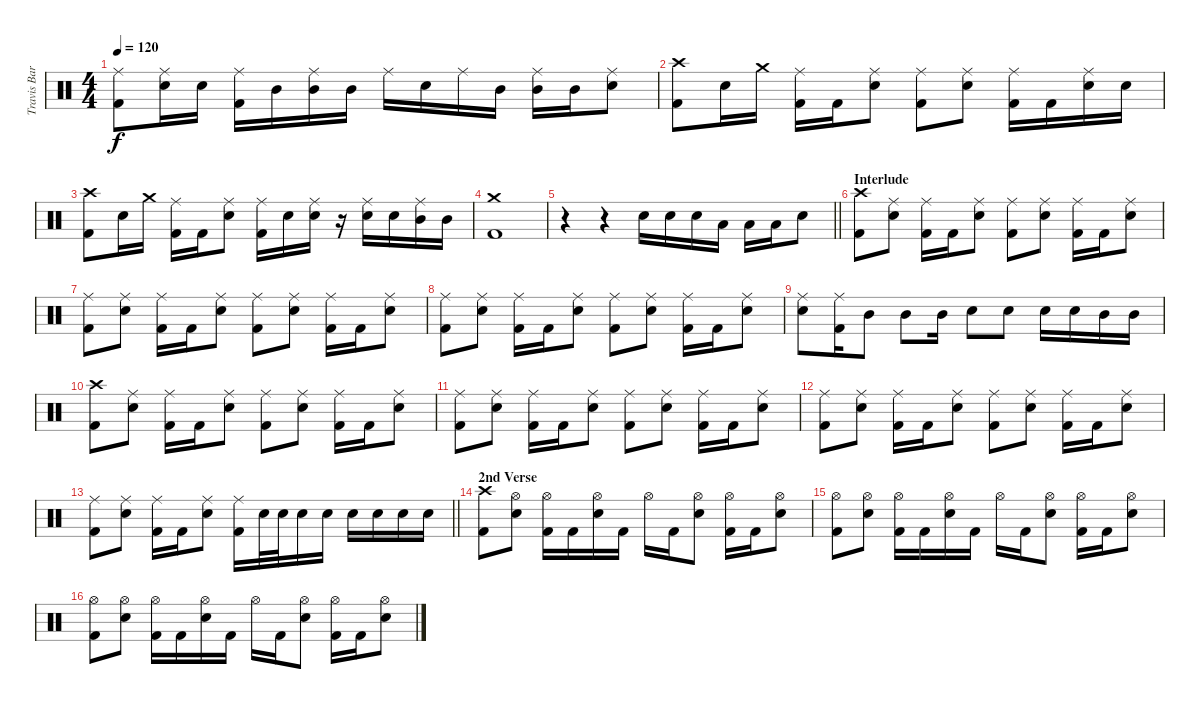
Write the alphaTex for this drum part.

\track ("Travis Barker - Drums" "Travis Bar") {instrument percussion}
\staff {score}
\articulation defaults
\ts (4 4)
\tempo 120
\clef neutral
\ks c
("Ride (middle)" "Kick (hit) 2").8{dy f} ("Ride (middle)" "Electric Snare (hit)").16 "Electric Snare (hit)".16 ("Ride (middle)" "Kick (hit) 2").16 "Mid Tom (hit)".16 ("Ride (middle)" "Mid Tom (hit)").16 "Mid Tom (hit)".16 "Ride (middle)".16 "Electric Snare (hit)".16 "Ride (middle)".16 "Mid Tom (hit)".16 ("Ride (middle)" "Mid Tom (hit)").16 "Mid Tom (hit)".16 ("Ride (middle)" "Electric Snare (hit)").8 |
("Crash high (hit)" "Kick (hit) 2").8 "Electric Snare (hit)".16 "Crash medium (hit)".16 ("Ride (middle)" "Kick (hit) 2").16 "Kick (hit) 2".16 ("Ride (middle)" "Electric Snare (hit)").8 ("Ride (middle)" "Kick (hit) 2").8 ("Ride (middle)" "Electric Snare (hit)").8 ("Ride (middle)" "Kick (hit) 2").16 "Kick (hit) 2".16 ("Ride (middle)" "Electric Snare (hit)").16 "Electric Snare (hit)".16 |
("Crash high (hit)" "Kick (hit) 2").8 "Electric Snare (hit)".16 "Crash medium (hit)".16 ("Ride (middle)" "Kick (hit) 2").16 "Kick (hit) 2".16 ("Ride (middle)" "Electric Snare (hit)").8 ("Ride (middle)" "Kick (hit) 2").16 "Electric Snare (hit)".16 ("Ride (middle)" "Electric Snare (hit)").16 r.16 ("Ride (middle)" "Electric Snare (hit)").16 "Electric Snare (hit)".16 ("Ride (middle)" "Mid Tom (hit)").16 "Mid Tom (hit)".16 |
("Crash medium (hit)" "Kick (hit) 2").1 |
\barLineRight lightlight
r.4 r.4 "Electric Snare (hit)".16 "Electric Snare (hit)".16 "Electric Snare (hit)".16 "Low Tom (hit)".16 "Low Tom (hit)".16 "Low Tom (hit)".16 "Electric Snare (hit)".8 |
\section ("" "Interlude")
("Crash high (hit)" "Kick (hit) 2").8 ("Ride (middle)" "Electric Snare (hit)").8 ("Ride (middle)" "Kick (hit) 2").16 "Kick (hit) 2".16 ("Ride (middle)" "Electric Snare (hit)").8 ("Ride (middle)" "Kick (hit) 2").8 ("Ride (middle)" "Electric Snare (hit)").8 ("Ride (middle)" "Kick (hit) 2").16 "Kick (hit) 2".16 ("Ride (middle)" "Electric Snare (hit)").8 |
("Ride (middle)" "Kick (hit) 2").8 ("Ride (middle)" "Electric Snare (hit)").8 ("Ride (middle)" "Kick (hit) 2").16 "Kick (hit) 2".16 ("Ride (middle)" "Electric Snare (hit)").8 ("Ride (middle)" "Kick (hit) 2").8 ("Ride (middle)" "Electric Snare (hit)").8 ("Ride (middle)" "Kick (hit) 2").16 "Kick (hit) 2".16 ("Ride (middle)" "Electric Snare (hit)").8 |
("Ride (middle)" "Kick (hit) 2").8 ("Ride (middle)" "Electric Snare (hit)").8 ("Ride (middle)" "Kick (hit) 2").16 "Kick (hit) 2".16 ("Ride (middle)" "Electric Snare (hit)").8 ("Ride (middle)" "Kick (hit) 2").8 ("Ride (middle)" "Electric Snare (hit)").8 ("Ride (middle)" "Kick (hit) 2").16 "Kick (hit) 2".16 ("Ride (middle)" "Electric Snare (hit)").8 |
("Ride (middle)" "Electric Snare (hit)").8 ("Ride (middle)" "Kick (hit) 2").16 "Mid Tom (hit)".8 "Mid Tom (hit)".8 "Mid Tom (hit)".16 "Electric Snare (hit)".8 "Electric Snare (hit)".8 "Electric Snare (hit)".16 "Electric Snare (hit)".16 "Mid Tom (hit)".16 "Mid Tom (hit)".16 |
("Crash high (hit)" "Kick (hit) 2").8 ("Ride (middle)" "Electric Snare (hit)").8 ("Ride (middle)" "Kick (hit) 2").16 "Kick (hit) 2".16 ("Ride (middle)" "Electric Snare (hit)").8 ("Ride (middle)" "Kick (hit) 2").8 ("Ride (middle)" "Electric Snare (hit)").8 ("Ride (middle)" "Kick (hit) 2").16 "Kick (hit) 2".16 ("Ride (middle)" "Electric Snare (hit)").8 |
("Ride (middle)" "Kick (hit) 2").8 ("Ride (middle)" "Electric Snare (hit)").8 ("Ride (middle)" "Kick (hit) 2").16 "Kick (hit) 2".16 ("Ride (middle)" "Electric Snare (hit)").8 ("Ride (middle)" "Kick (hit) 2").8 ("Ride (middle)" "Electric Snare (hit)").8 ("Ride (middle)" "Kick (hit) 2").16 "Kick (hit) 2".16 ("Ride (middle)" "Electric Snare (hit)").8 |
("Ride (middle)" "Kick (hit) 2").8 ("Ride (middle)" "Electric Snare (hit)").8 ("Ride (middle)" "Kick (hit) 2").16 "Kick (hit) 2".16 ("Ride (middle)" "Electric Snare (hit)").8 ("Ride (middle)" "Kick (hit) 2").8 ("Ride (middle)" "Electric Snare (hit)").8 ("Ride (middle)" "Kick (hit) 2").16 "Kick (hit) 2".16 ("Ride (middle)" "Electric Snare (hit)").8 |
\barLineRight lightlight
("Ride (middle)" "Kick (hit) 2").8 ("Ride (middle)" "Electric Snare (hit)").8 ("Ride (middle)" "Kick (hit) 2").16 "Kick (hit) 2".16 ("Ride (middle)" "Electric Snare (hit)").8 ("Ride (middle)" "Kick (hit) 2").16 "Electric Snare (hit)".32 "Electric Snare (hit)".32 "Electric Snare (hit)".16 "Electric Snare (hit)".16 "Electric Snare (hit)".16 "Electric Snare (hit)".16 "Electric Snare (hit)".16 "Electric Snare (hit)".16 |
\section ("" "2nd Verse")
("Crash high (hit)" "Kick (hit) 2").8 ("Hi-Hat (open)" "Electric Snare (hit)").8 ("Hi-Hat (open)" "Kick (hit) 2").16 "Kick (hit) 2".16 ("Hi-Hat (open)" "Electric Snare (hit)").16 "Kick (hit) 2".16 "Hi-Hat (open)".16 "Kick (hit) 2".16 ("Hi-Hat (open)" "Electric Snare (hit)").8 ("Hi-Hat (open)" "Kick (hit) 2").16 "Kick (hit) 2".16 ("Hi-Hat (open)" "Electric Snare (hit)").8 |
("Hi-Hat (open)" "Kick (hit) 2").8 ("Hi-Hat (open)" "Electric Snare (hit)").8 ("Hi-Hat (open)" "Kick (hit) 2").16 "Kick (hit) 2".16 ("Hi-Hat (open)" "Electric Snare (hit)").16 "Kick (hit) 2".16 "Hi-Hat (open)".16 "Kick (hit) 2".16 ("Hi-Hat (open)" "Electric Snare (hit)").8 ("Hi-Hat (open)" "Kick (hit) 2").16 "Kick (hit) 2".16 ("Hi-Hat (open)" "Electric Snare (hit)").8 |
("Hi-Hat (open)" "Kick (hit) 2").8 ("Hi-Hat (open)" "Electric Snare (hit)").8 ("Hi-Hat (open)" "Kick (hit) 2").16 "Kick (hit) 2".16 ("Hi-Hat (open)" "Electric Snare (hit)").16 "Kick (hit) 2".16 "Hi-Hat (open)".16 "Kick (hit) 2".16 ("Hi-Hat (open)" "Electric Snare (hit)").8 ("Hi-Hat (open)" "Kick (hit) 2").16 "Kick (hit) 2".16 ("Hi-Hat (open)" "Electric Snare (hit)").8
